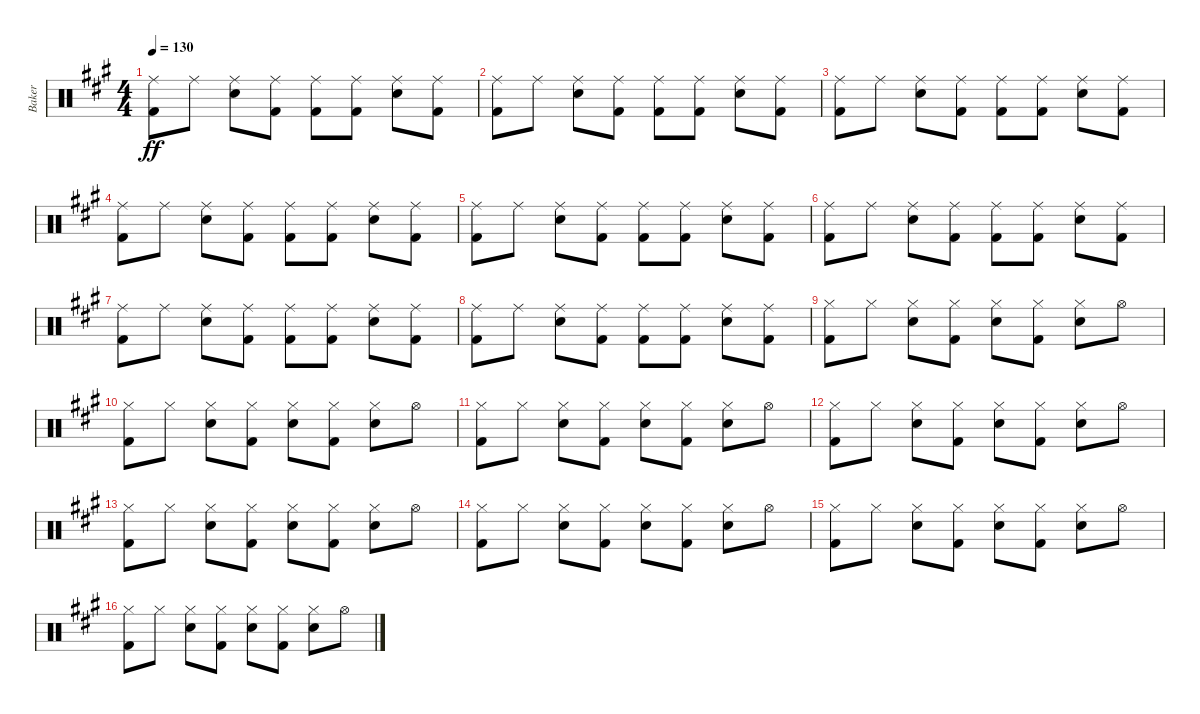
\track ("Baker" "Baker") {instrument percussion}
\staff {score}
\articulation defaults
\ts (4 4)
\tempo 130
\clef neutral
\ks a
("Ride (middle)" "Kick (hit) 2").8{dy ff} "Ride (middle)".8 ("Ride (middle)" "Snare (hit) 2").8 ("Ride (middle)" "Kick (hit) 2").8 ("Ride (middle)" "Kick (hit) 2").8 ("Ride (middle)" "Kick (hit) 2").8 ("Ride (middle)" "Snare (hit) 2").8 ("Ride (middle)" "Kick (hit) 2").8 |
("Ride (middle)" "Kick (hit) 2").8 "Ride (middle)".8 ("Ride (middle)" "Snare (hit) 2").8 ("Ride (middle)" "Kick (hit) 2").8 ("Ride (middle)" "Kick (hit) 2").8 ("Ride (middle)" "Kick (hit) 2").8 ("Ride (middle)" "Snare (hit) 2").8 ("Ride (middle)" "Kick (hit) 2").8 |
("Ride (middle)" "Kick (hit) 2").8 "Ride (middle)".8 ("Ride (middle)" "Snare (hit) 2").8 ("Ride (middle)" "Kick (hit) 2").8 ("Ride (middle)" "Kick (hit) 2").8 ("Ride (middle)" "Kick (hit) 2").8 ("Ride (middle)" "Snare (hit) 2").8 ("Ride (middle)" "Kick (hit) 2").8 |
("Ride (middle)" "Kick (hit) 2").8 "Ride (middle)".8 ("Ride (middle)" "Snare (hit) 2").8 ("Ride (middle)" "Kick (hit) 2").8 ("Ride (middle)" "Kick (hit) 2").8 ("Ride (middle)" "Kick (hit) 2").8 ("Ride (middle)" "Snare (hit) 2").8 ("Ride (middle)" "Kick (hit) 2").8 |
("Ride (middle)" "Kick (hit) 2").8 "Ride (middle)".8 ("Ride (middle)" "Snare (hit) 2").8 ("Ride (middle)" "Kick (hit) 2").8 ("Ride (middle)" "Kick (hit) 2").8 ("Ride (middle)" "Kick (hit) 2").8 ("Ride (middle)" "Snare (hit) 2").8 ("Ride (middle)" "Kick (hit) 2").8 |
("Ride (middle)" "Kick (hit) 2").8 "Ride (middle)".8 ("Ride (middle)" "Snare (hit) 2").8 ("Ride (middle)" "Kick (hit) 2").8 ("Ride (middle)" "Kick (hit) 2").8 ("Ride (middle)" "Kick (hit) 2").8 ("Ride (middle)" "Snare (hit) 2").8 ("Ride (middle)" "Kick (hit) 2").8 |
("Ride (middle)" "Kick (hit) 2").8 "Ride (middle)".8 ("Ride (middle)" "Snare (hit) 2").8 ("Ride (middle)" "Kick (hit) 2").8 ("Ride (middle)" "Kick (hit) 2").8 ("Ride (middle)" "Kick (hit) 2").8 ("Ride (middle)" "Snare (hit) 2").8 ("Ride (middle)" "Kick (hit) 2").8 |
("Ride (middle)" "Kick (hit) 2").8 "Ride (middle)".8 ("Ride (middle)" "Snare (hit) 2").8 ("Ride (middle)" "Kick (hit) 2").8 ("Ride (middle)" "Kick (hit) 2").8 ("Ride (middle)" "Kick (hit) 2").8 ("Ride (middle)" "Snare (hit) 2").8 ("Ride (middle)" "Kick (hit) 2").8 |
("Hi-Hat (closed)" "Kick (hit) 2").8 "Hi-Hat (closed)".8 ("Hi-Hat (closed)" "Snare (hit) 2").8 ("Hi-Hat (closed)" "Kick (hit) 2").8 ("Hi-Hat (closed)" "Snare (hit) 2").8 ("Hi-Hat (closed)" "Kick (hit) 2").8 ("Hi-Hat (closed)" "Snare (hit) 2").8 "Hi-Hat (open)".8 |
("Hi-Hat (closed)" "Kick (hit) 2").8 "Hi-Hat (closed)".8 ("Hi-Hat (closed)" "Snare (hit) 2").8 ("Hi-Hat (closed)" "Kick (hit) 2").8 ("Hi-Hat (closed)" "Snare (hit) 2").8 ("Hi-Hat (closed)" "Kick (hit) 2").8 ("Hi-Hat (closed)" "Snare (hit) 2").8 "Hi-Hat (open)".8 |
("Hi-Hat (closed)" "Kick (hit) 2").8 "Hi-Hat (closed)".8 ("Hi-Hat (closed)" "Snare (hit) 2").8 ("Hi-Hat (closed)" "Kick (hit) 2").8 ("Hi-Hat (closed)" "Snare (hit) 2").8 ("Hi-Hat (closed)" "Kick (hit) 2").8 ("Hi-Hat (closed)" "Snare (hit) 2").8 "Hi-Hat (open)".8 |
("Hi-Hat (closed)" "Kick (hit) 2").8 "Hi-Hat (closed)".8 ("Hi-Hat (closed)" "Snare (hit) 2").8 ("Hi-Hat (closed)" "Kick (hit) 2").8 ("Hi-Hat (closed)" "Snare (hit) 2").8 ("Hi-Hat (closed)" "Kick (hit) 2").8 ("Hi-Hat (closed)" "Snare (hit) 2").8 "Hi-Hat (open)".8 |
("Hi-Hat (closed)" "Kick (hit) 2").8 "Hi-Hat (closed)".8 ("Hi-Hat (closed)" "Snare (hit) 2").8 ("Hi-Hat (closed)" "Kick (hit) 2").8 ("Hi-Hat (closed)" "Snare (hit) 2").8 ("Hi-Hat (closed)" "Kick (hit) 2").8 ("Hi-Hat (closed)" "Snare (hit) 2").8 "Hi-Hat (open)".8 |
("Hi-Hat (closed)" "Kick (hit) 2").8 "Hi-Hat (closed)".8 ("Hi-Hat (closed)" "Snare (hit) 2").8 ("Hi-Hat (closed)" "Kick (hit) 2").8 ("Hi-Hat (closed)" "Snare (hit) 2").8 ("Hi-Hat (closed)" "Kick (hit) 2").8 ("Hi-Hat (closed)" "Snare (hit) 2").8 "Hi-Hat (open)".8 |
("Hi-Hat (closed)" "Kick (hit) 2").8 "Hi-Hat (closed)".8 ("Hi-Hat (closed)" "Snare (hit) 2").8 ("Hi-Hat (closed)" "Kick (hit) 2").8 ("Hi-Hat (closed)" "Snare (hit) 2").8 ("Hi-Hat (closed)" "Kick (hit) 2").8 ("Hi-Hat (closed)" "Snare (hit) 2").8 "Hi-Hat (open)".8 |
("Hi-Hat (closed)" "Kick (hit) 2").8 "Hi-Hat (closed)".8 ("Hi-Hat (closed)" "Snare (hit) 2").8 ("Hi-Hat (closed)" "Kick (hit) 2").8 ("Hi-Hat (closed)" "Snare (hit) 2").8 ("Hi-Hat (closed)" "Kick (hit) 2").8 ("Hi-Hat (closed)" "Snare (hit) 2").8 "Hi-Hat (open)".8
